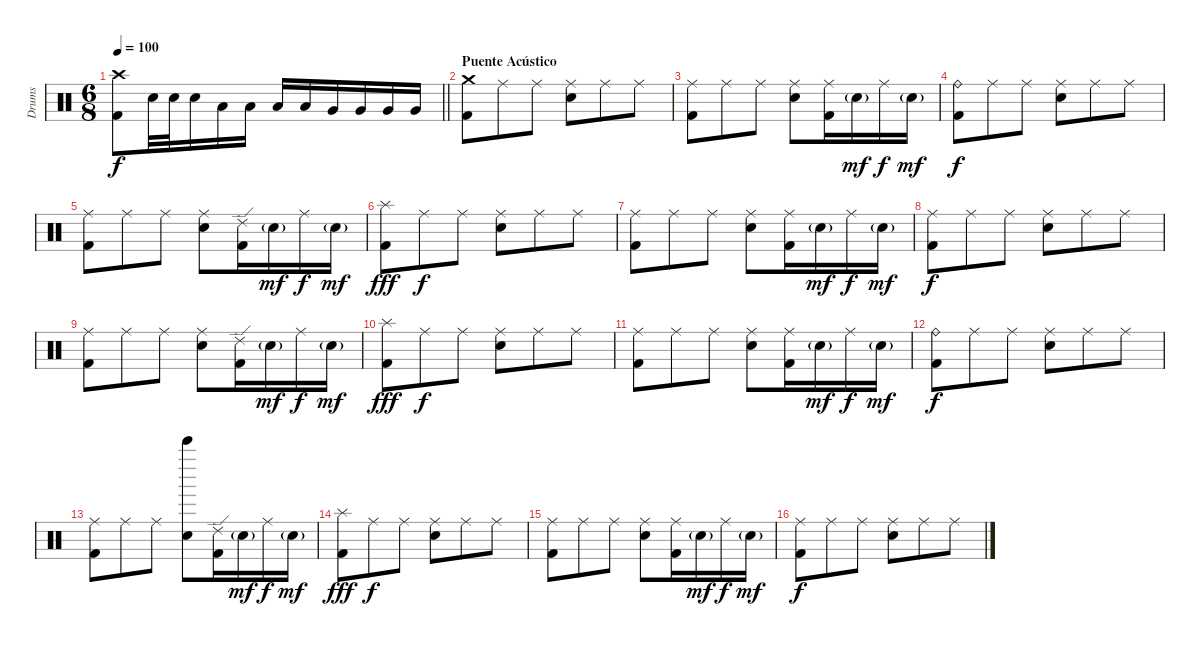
\track ("Drums" "Drums") {instrument percussion}
\staff {score}
\articulation defaults
\ts (6 8)
\tempo 100
\clef neutral
\barLineRight lightlight
\ks c
("Crash high (hit)" "Kick (hit) 2").8{dy f} "Snare (hit) 2".32 "Snare (hit) 2".32 "Snare (hit) 2".16 "Low Tom (hit)".16 "Low Tom (hit)".16 "Low Tom (hit)".16 "Low Tom (hit)".16 "Very Low Tom (hit)".16 "Very Low Tom (hit)".16 "Very Low Tom (hit)".16 "Very Low Tom (hit)".16 |
\section ("" "Puente Acústico")
("Crash medium (hit)" "Kick (hit) 2").8 "Ride (middle)".8 "Ride (middle)".8 ("Ride (middle)" "Snare (hit) 2").8 "Ride (middle)".8 "Ride (middle)".8 |
("Ride (middle)" "Kick (hit) 2").8 "Ride (middle)".8 "Ride (middle)".8 ("Ride (middle)" "Snare (hit) 2").8 ("Ride (middle)" "Kick (hit) 2").16 "Snare (hit) 2"{g}.16{dy mf} "Ride (middle)".16{dy f} "Snare (hit) 2"{g}.16{dy mf} |
("Ride (bell)" "Kick (hit) 2").8{dy f} "Ride (middle)".8 "Ride (middle)".8 ("Ride (middle)" "Snare (hit) 2").8 "Ride (middle)".8 "Ride (middle)".8 |
("Ride (middle)" "Kick (hit) 2").8 "Ride (middle)".8 "Ride (middle)".8 ("Ride (middle)" "Snare (hit) 2").8 ("Ride (edge) 2" "Kick (hit) 2").16 "Snare (hit) 2"{g}.16{dy mf} "Ride (middle)".16{dy f} "Snare (hit) 2"{g}.16{dy mf} |
("Splash (hit)" "Kick (hit) 2").8{dy fff} "Ride (middle)".8{dy f} "Ride (middle)".8 ("Ride (middle)" "Snare (hit) 2").8 "Ride (middle)".8 "Ride (middle)".8 |
("Ride (middle)" "Kick (hit) 2").8 "Ride (middle)".8 "Ride (middle)".8 ("Ride (middle)" "Snare (hit) 2").8 ("Ride (middle)" "Kick (hit) 2").16 "Snare (hit) 2"{g}.16{dy mf} "Ride (middle)".16{dy f} "Snare (hit) 2"{g}.16{dy mf} |
("Ride (middle)" "Kick (hit) 2").8{dy f} "Ride (middle)".8 "Ride (middle)".8 ("Ride (middle)" "Snare (hit) 2").8 "Ride (middle)".8 "Ride (middle)".8 |
("Ride (middle)" "Kick (hit) 2").8 "Ride (middle)".8 "Ride (middle)".8 ("Ride (middle)" "Snare (hit) 2").8 ("Ride (edge) 2" "Kick (hit) 2").16 "Snare (hit) 2"{g}.16{dy mf} "Ride (middle)".16{dy f} "Snare (hit) 2"{g}.16{dy mf} |
("Splash (hit)" "Kick (hit) 2").8{dy fff} "Ride (middle)".8{dy f} "Ride (middle)".8 ("Ride (middle)" "Snare (hit) 2").8 "Ride (middle)".8 "Ride (middle)".8 |
("Ride (middle)" "Kick (hit) 2").8 "Ride (middle)".8 "Ride (middle)".8 ("Ride (middle)" "Snare (hit) 2").8 ("Ride (middle)" "Kick (hit) 2").16 "Snare (hit) 2"{g}.16{dy mf} "Ride (middle)".16{dy f} "Snare (hit) 2"{g}.16{dy mf} |
("Ride (bell)" "Kick (hit) 2").8{dy f} "Ride (middle)".8 "Ride (middle)".8 ("Ride (middle)" "Snare (hit) 2").8 "Ride (middle)".8 "Ride (middle)".8 |
("Ride (middle)" "Kick (hit) 2").8 "Ride (middle)".8 "Ride (middle)".8 ("Bell Tree (hit)" "Snare (hit) 2").8 ("Ride (edge) 2" "Kick (hit) 2").16 "Snare (hit) 2"{g}.16{dy mf} "Ride (middle)".16{dy f} "Snare (hit) 2"{g}.16{dy mf} |
("Splash (hit)" "Kick (hit) 2").8{dy fff} "Ride (middle)".8{dy f} "Ride (middle)".8 ("Ride (middle)" "Snare (hit) 2").8 "Ride (middle)".8 "Ride (middle)".8 |
("Ride (middle)" "Kick (hit) 2").8 "Ride (middle)".8 "Ride (middle)".8 ("Ride (middle)" "Snare (hit) 2").8 ("Ride (middle)" "Kick (hit) 2").16 "Snare (hit) 2"{g}.16{dy mf} "Ride (middle)".16{dy f} "Snare (hit) 2"{g}.16{dy mf} |
("Ride (middle)" "Kick (hit) 2").8{dy f} "Ride (middle)".8 "Ride (middle)".8 ("Ride (middle)" "Snare (hit) 2").8 "Ride (middle)".8 "Ride (middle)".8
